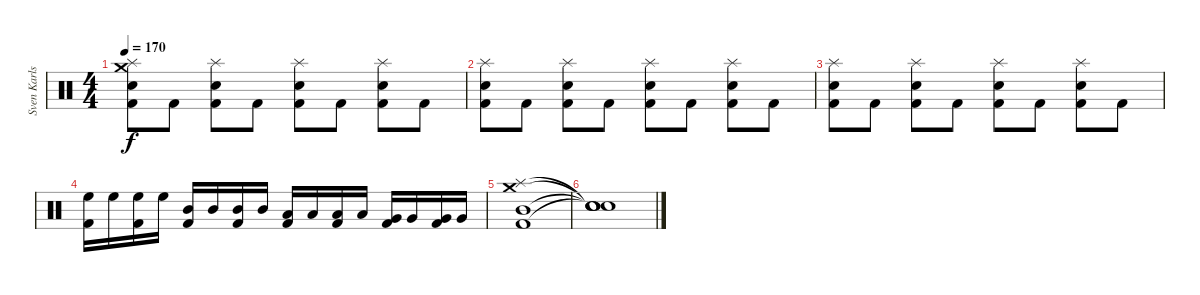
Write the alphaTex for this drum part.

\track ("Sven Karlsson" "Sven Karls") {instrument percussion}
\staff {score}
\articulation defaults
\ts (4 4)
\tempo 170
\clef neutral
\ks c
("Splash (hit)" "Crash medium (hit)" "Electric Snare (hit)" "Kick (hit) 2").8{dy f} "Kick (hit) 2".8 ("Splash (hit)" "Electric Snare (hit)" "Kick (hit) 2").8 "Kick (hit) 2".8 ("Splash (hit)" "Electric Snare (hit)" "Kick (hit) 2").8 "Kick (hit) 2".8 ("Splash (hit)" "Electric Snare (hit)" "Kick (hit) 2").8 "Kick (hit) 2".8 |
("Splash (hit)" "Electric Snare (hit)" "Kick (hit) 2").8 "Kick (hit) 2".8 ("Splash (hit)" "Electric Snare (hit)" "Kick (hit) 2").8 "Kick (hit) 2".8 ("Splash (hit)" "Electric Snare (hit)" "Kick (hit) 2").8 "Kick (hit) 2".8 ("Splash (hit)" "Electric Snare (hit)" "Kick (hit) 2").8 "Kick (hit) 2".8 |
("Splash (hit)" "Electric Snare (hit)" "Kick (hit) 2").8 "Kick (hit) 2".8 ("Splash (hit)" "Electric Snare (hit)" "Kick (hit) 2").8 "Kick (hit) 2".8 ("Splash (hit)" "Electric Snare (hit)" "Kick (hit) 2").8 "Kick (hit) 2".8 ("Splash (hit)" "Electric Snare (hit)" "Kick (hit) 2").8 "Kick (hit) 2".8 |
("High Floor Tom (hit)" "Kick (hit) 2").16 "High Floor Tom (hit)".16 ("High Floor Tom (hit)" "Kick (hit) 2").16 "High Floor Tom (hit)".16 ("Mid Tom (hit)" "Kick (hit) 2").16 "Mid Tom (hit)".16 ("Mid Tom (hit)" "Kick (hit) 2").16 "Mid Tom (hit)".16 ("Low Tom (hit)" "Kick (hit) 2").16 "Low Tom (hit)".16 ("Low Tom (hit)" "Kick (hit) 2").16 "Low Tom (hit)".16 ("Very Low Tom (hit)" "Kick (hit) 2").16 "Very Low Tom (hit)".16 ("Very Low Tom (hit)" "Kick (hit) 2").16 "Very Low Tom (hit)".16 |
("Splash (hit)" "Crash medium (hit)" "Mid Tom (hit)" "Kick (hit) 2").1 |
("Snare (hit)"{t} "Snare (hit)"{t} "Snare (hit)"{t} "Snare (hit)"{t}).1
